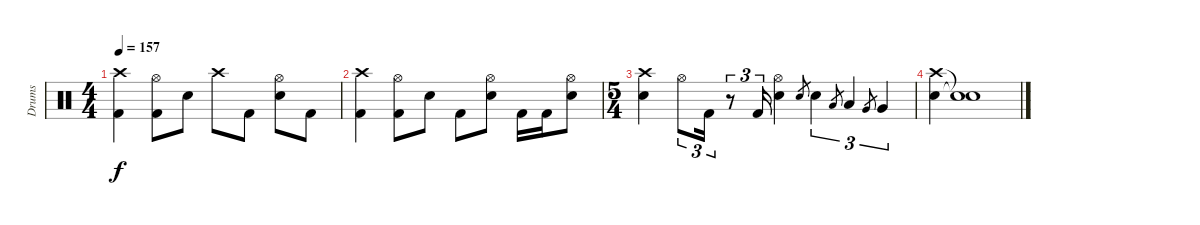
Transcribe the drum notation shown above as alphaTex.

\track ("Drums" "Drums") {instrument percussion}
\staff {score}
\articulation defaults
\ts (4 4)
\tempo 157
\clef neutral
\ks c
("Crash high (hit)" "Kick (hit) 2").4{dy f} ("Hi-Hat (open)" "Kick (hit) 2").8 "Electric Snare (hit)".8 "Crash high (hit)".8 "Kick (hit) 2".8 ("Hi-Hat (open)" "Electric Snare (hit)").8 "Kick (hit) 2".8 |
("Crash high (hit)" "Kick (hit) 2").4 ("Hi-Hat (open)" "Kick (hit) 2").8 "Electric Snare (hit)".8 "Kick (hit) 2".8 ("Hi-Hat (open)" "Electric Snare (hit)").8 "Kick (hit) 2".16 "Kick (hit) 2".16 ("Hi-Hat (open)" "Electric Snare (hit)").8 |
\ts (5 4)
("Crash high (hit)" "Electric Snare (hit)").4 "Hi-Hat (open)".8{tu (3 2)} "Kick (hit) 2".16{tu (3 2)} r.8{tu (3 2)} "Kick (hit) 2".16{tu (3 2)} ("Hi-Hat (open)" "Electric Snare (hit)").4 "Electric Snare (hit)".8{gr} "Electric Snare (hit)".4{tu (3 2)} "Low Tom (hit)".8{gr} "Low Tom (hit)".4{tu (3 2)} "Very Low Tom (hit)".8{gr} "Very Low Tom (hit)".4{tu (3 2)} |
("Crash high (hit)" "Electric Snare (hit)").4 ("Snare (hit)"{t} "Snare (hit)"{t}).1
